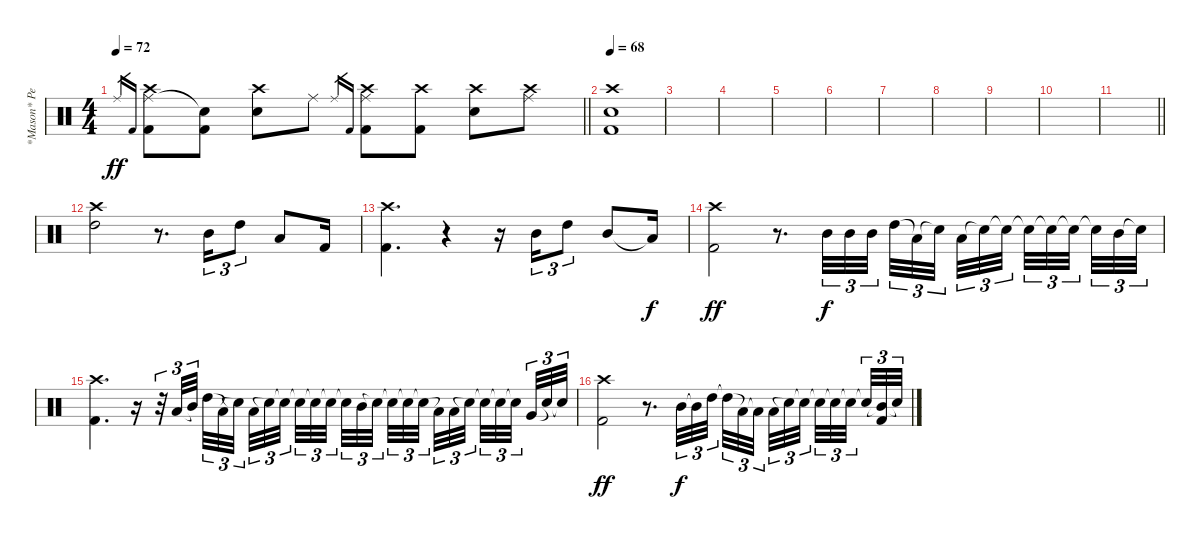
\track ("*Mason* Percussion" "*Mason* Pe") {instrument percussion}
\staff {score}
\articulation defaults
\ts (4 4)
\tempo 72
\clef neutral
\barLineRight lightlight
\ks c "Ride (middle)".16{gr dy ff} "Kick (hit) 2".16{gr}
("Ride (middle)" "Crash high (hit)" "Kick (hit) 2").8 ("Snare (hit)"{t} "Kick (hit) 2").8 ("Crash high (hit)" "Snare (hit) 2").8 "Ride (middle)".8 "Ride (middle)".16{gr} "Kick (hit) 2".16{gr} ("Ride (middle)" "Crash high (hit)" "Kick (hit) 2").8 ("Crash high (hit)" "Kick (hit) 2").8 ("Crash high (hit)" "Snare (hit) 2").8 ("Ride (middle)" "Crash high (hit)").8 |
\tempo 68
("Crash high (hit)" "Snare (hit) 2" "Kick (hit) 2").1 |
|
|
|
|
|
|
|
|
\barLineRight lightlight
|
("Crash high (hit)" "High Tom (hit)").2{volume 8} r.8{d} "Mid Tom (hit)".16{tu (3 2)} "High Tom (hit)".8{tu (3 2)} "Low Tom (hit)".8 "Kick (hit) 2".16 |
("Crash high (hit)" "Kick (hit) 2").4{d} r.4 r.16 "Mid Tom (hit)".16{tu (3 2)} "High Tom (hit)".8{tu (3 2)} "Mid Tom (hit)".8 "Low Tom (hit)"{t}.16{dy f} |
("Crash high (hit)" "Kick (hit) 2").2{dy ff} r.8{d} "Mid Tom (hit)".32{tu (3 2) dy f} "Mid Tom (hit)".32{tu (3 2)} "Mid Tom (hit)".32{tu (3 2)} "High Tom (hit)".32{tu (3 2)} "Low Tom (hit)"{t}.32{tu (3 2)} "Snare (hit)"{t}.32{tu (3 2) beam splitsecondary} "Low Tom (hit)".32{tu (3 2)} "Snare (hit)"{t}.32{tu (3 2)} "Snare (hit)"{t}.32{tu (3 2) beam splitsecondary} "Snare (hit)"{t}.32{tu (3 2)} "Snare (hit)"{t}.32{tu (3 2)} "Snare (hit)"{t}.32{tu (3 2) beam splitsecondary} "Snare (hit)"{t}.32{tu (3 2)} "Mid Tom (hit)".32{tu (3 2)} "Snare (hit)"{t}.32{tu (3 2)} |
("Crash high (hit)" "Kick (hit) 2").4{d} r.16 r.32{tu (3 2)} "Low Tom (hit)".32{tu (3 2)} "Mid Tom (hit)"{t}.32{tu (3 2)} "High Tom (hit)".32{tu (3 2)} "Low Tom (hit)"{t}.32{tu (3 2)} "Snare (hit)"{t}.32{tu (3 2) beam splitsecondary} "Low Tom (hit)".32{tu (3 2)} "Snare (hit)"{t}.32{tu (3 2)} "Snare (hit)"{t}.32{tu (3 2) beam splitsecondary} "Snare (hit)"{t}.32{tu (3 2)} "Snare (hit)"{t}.32{tu (3 2)} "Snare (hit)"{t}.32{tu (3 2) beam splitsecondary} "Snare (hit)"{t}.32{tu (3 2)} "Mid Tom (hit)".32{tu (3 2)} "Snare (hit)"{t}.32{tu (3 2)} "Snare (hit)"{t}.32{tu (3 2)} "Snare (hit)"{t}.32{tu (3 2)} "Snare (hit)"{t}.32{tu (3 2) beam splitsecondary} "Low Tom (hit)"{t}.32{tu (3 2)} "Low Tom (hit)".32{tu (3 2)} "Snare (hit)"{t}.32{tu (3 2) beam splitsecondary} "Snare (hit)"{t}.32{tu (3 2)} "Snare (hit)"{t}.32{tu (3 2)} "Snare (hit)"{t}.32{tu (3 2) beam splitsecondary} "Very Low Tom (hit)".32{tu (3 2)} "Snare (hit)"{t}.32{tu (3 2)} "Snare (hit)"{t}.32{tu (3 2)} |
("Crash high (hit)" "Kick (hit) 2").2{dy ff} r.8{d} "Mid Tom (hit)".32{tu (3 2) dy f} "Mid Tom (hit)"{t}.32{tu (3 2)} "High Tom (hit)".32{tu (3 2)} "High Tom (hit)"{t}.32{tu (3 2)} "Low Tom (hit)"{t}.32{tu (3 2)} "Low Tom (hit)"{t}.32{tu (3 2) beam splitsecondary} "Low Tom (hit)".32{tu (3 2)} "Snare (hit)"{t}.32{tu (3 2)} "Snare (hit)"{t}.32{tu (3 2) beam splitsecondary} "Snare (hit)"{t}.32{tu (3 2)} "Snare (hit)"{t}.32{tu (3 2)} "Snare (hit)"{t}.32{tu (3 2) beam splitsecondary} "Snare (hit)"{t}.32{tu (3 2)} ("Mid Tom (hit)"{t} "Kick (hit) 2").32{tu (3 2)} "Snare (hit)"{t}.32{tu (3 2)}
